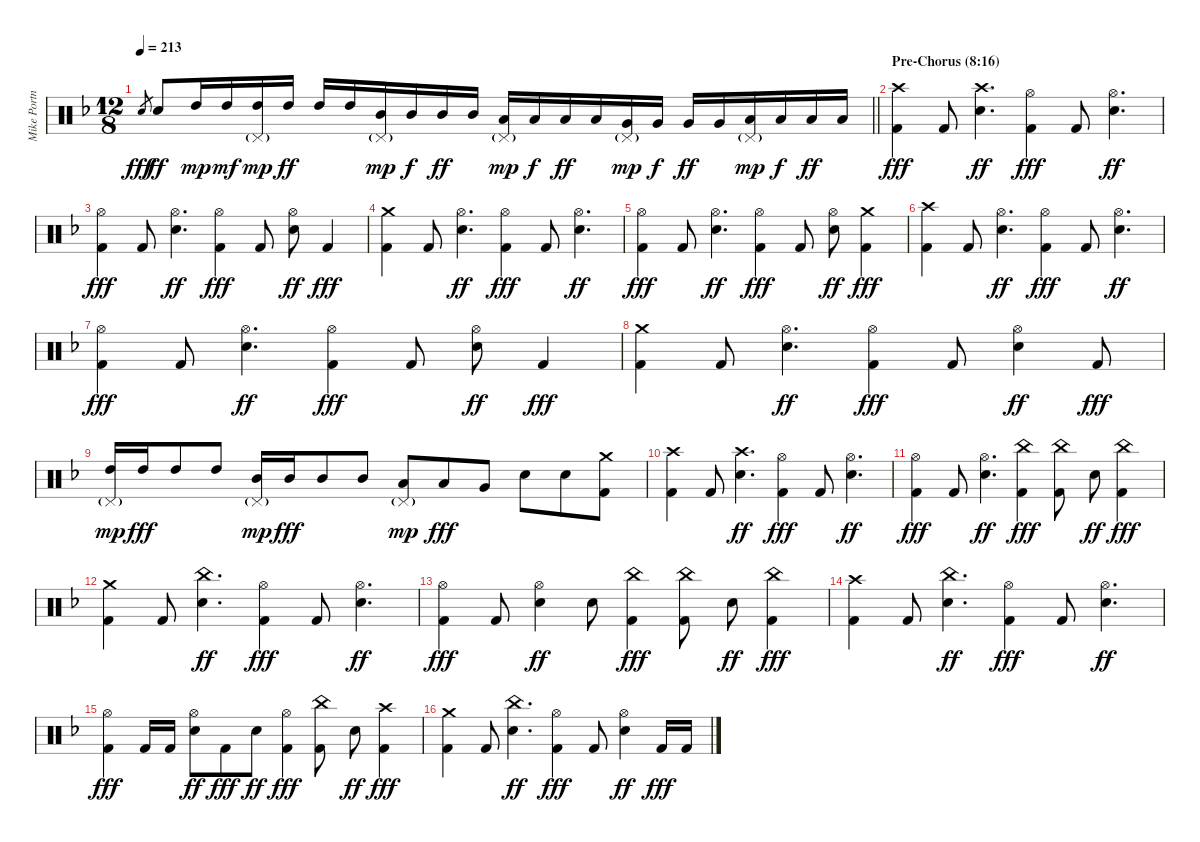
\track ("Mike Portnoy Drums" "Mike Portn") {instrument percussion}
\staff {score}
\articulation defaults
\ts (12 8)
\tempo 213
\clef neutral
\barLineRight lightlight
\ks dminor "Electric Snare (hit)".8{gr dy fff} "Electric Snare (hit)".8{dy ff} "High Tom (hit)".16{dy mp} "High Tom (hit)".16{dy mf}
("High Tom (hit)" "Pedal Hi-Hat (hit)"{g}).16{dy mp} "High Tom (hit)".16{dy ff} "High Tom (hit)".16 "High Tom (hit)".16 ("Mid Tom (hit)" "Pedal Hi-Hat (hit)"{g}).16{dy mp} "Mid Tom (hit)".16{dy f} "Mid Tom (hit)".16{dy ff} "Mid Tom (hit)".16 ("Low Tom (hit)" "Pedal Hi-Hat (hit)"{g}).16{dy mp} "Low Tom (hit)".16{dy f} "Low Tom (hit)".16{dy ff} "Low Tom (hit)".16 ("Very Low Tom (hit)" "Pedal Hi-Hat (hit)"{g}).16{dy mp} "Very Low Tom (hit)".16{dy f} "Very Low Tom (hit)".16{dy ff} "Very Low Tom (hit)".16 ("Low Floor Tom (hit)" "Pedal Hi-Hat (hit)"{g}).16{dy mp} "Low Floor Tom (hit)".16{dy f} "Low Floor Tom (hit)".16{dy ff} "Low Floor Tom (hit)".16 |
\section ("" "Pre-Chorus (8:16)")
("Crash high (hit)" "Kick (hit) 2").4{dy fff} "Kick (hit) 2".8 ("Crash high (hit)" "Electric Snare (hit)").4{d dy ff} ("Hi-Hat (open)" "Kick (hit) 2").4{dy fff} "Kick (hit) 2".8 ("Hi-Hat (open)" "Electric Snare (hit)").4{d dy ff} |
("Hi-Hat (open)" "Kick (hit) 2").4{dy fff} "Kick (hit) 2".8 ("Hi-Hat (open)" "Electric Snare (hit)").4{d dy ff} ("Hi-Hat (open)" "Kick (hit) 2").4{dy fff} "Kick (hit) 2".8 ("Hi-Hat (open)" "Electric Snare (hit)").8{dy ff} "Kick (hit) 2".4{dy fff} |
("Crash medium (hit)" "Kick (hit) 2").4 "Kick (hit) 2".8 ("Hi-Hat (open)" "Electric Snare (hit)").4{d dy ff} ("Hi-Hat (open)" "Kick (hit) 2").4{dy fff} "Kick (hit) 2".8 ("Hi-Hat (open)" "Electric Snare (hit)").4{d dy ff} |
("Hi-Hat (open)" "Kick (hit) 2").4{dy fff} "Kick (hit) 2".8 ("Hi-Hat (open)" "Electric Snare (hit)").4{d dy ff} ("Hi-Hat (open)" "Kick (hit) 2").4{dy fff} "Kick (hit) 2".8 ("Hi-Hat (open)" "Electric Snare (hit)").8{dy ff} ("Crash medium (hit)" "Kick (hit) 2").4{dy fff} |
("Crash high (hit)" "Kick (hit) 2").4 "Kick (hit) 2".8 ("Hi-Hat (open)" "Electric Snare (hit)").4{d dy ff} ("Hi-Hat (open)" "Kick (hit) 2").4{dy fff} "Kick (hit) 2".8 ("Hi-Hat (open)" "Electric Snare (hit)").4{d dy ff} |
("Hi-Hat (open)" "Kick (hit) 2").4{dy fff} "Kick (hit) 2".8 ("Hi-Hat (open)" "Electric Snare (hit)").4{d dy ff} ("Hi-Hat (open)" "Kick (hit) 2").4{dy fff} "Kick (hit) 2".8 ("Hi-Hat (open)" "Electric Snare (hit)").8{dy ff} "Kick (hit) 2".4{dy fff} |
("Crash medium (hit)" "Kick (hit) 2").4 "Kick (hit) 2".8 ("Hi-Hat (open)" "Electric Snare (hit)").4{d dy ff} ("Hi-Hat (open)" "Kick (hit) 2").4{dy fff} "Kick (hit) 2".8 ("Hi-Hat (open)" "Electric Snare (hit)").4{dy ff} "Kick (hit) 2".8{dy fff} |
("High Tom (hit)" "Pedal Hi-Hat (hit)"{g}).16{dy mp} "High Tom (hit)".16{dy fff} "High Tom (hit)".8 "High Tom (hit)".8 ("Mid Tom (hit)" "Pedal Hi-Hat (hit)"{g}).16{dy mp} "Mid Tom (hit)".16{dy fff} "Mid Tom (hit)".8 "Mid Tom (hit)".8 ("Low Tom (hit)" "Pedal Hi-Hat (hit)"{g}).8{dy mp} "Low Tom (hit)".8{dy fff} "Very Low Tom (hit)".8 "Electric Snare (hit)".8 "Electric Snare (hit)".8 ("Crash medium (hit)" "Kick (hit) 2").8 |
("Crash high (hit)" "Kick (hit) 2").4 "Kick (hit) 2".8 ("Crash high (hit)" "Electric Snare (hit)").4{d dy ff} ("Hi-Hat (open)" "Kick (hit) 2").4{dy fff} "Kick (hit) 2".8 ("Hi-Hat (open)" "Electric Snare (hit)").4{d dy ff} |
("Hi-Hat (open)" "Kick (hit) 2").4{dy fff} "Kick (hit) 2".8 ("Hi-Hat (open)" "Electric Snare (hit)").4{d dy ff} ("China (hit)" "Kick (hit) 2").4{dy fff} ("China (hit)" "Kick (hit) 2").8 "Electric Snare (hit)".8{dy ff} ("China (hit)" "Kick (hit) 2").4{dy fff} |
("Crash medium (hit)" "Kick (hit) 2").4 "Kick (hit) 2".8 ("China (hit)" "Electric Snare (hit)").4{d dy ff} ("Hi-Hat (open)" "Kick (hit) 2").4{dy fff} "Kick (hit) 2".8 ("Hi-Hat (open)" "Electric Snare (hit)").4{d dy ff} |
("Hi-Hat (open)" "Kick (hit) 2").4{dy fff} "Kick (hit) 2".8 ("Hi-Hat (open)" "Electric Snare (hit)").4{dy ff} "Electric Snare (hit)".8 ("China (hit)" "Kick (hit) 2").4{dy fff} ("China (hit)" "Kick (hit) 2").8 "Electric Snare (hit)".8{dy ff} ("China (hit)" "Kick (hit) 2").4{dy fff} |
("Crash high (hit)" "Kick (hit) 2").4 "Kick (hit) 2".8 ("China (hit)" "Electric Snare (hit)").4{d dy ff} ("Hi-Hat (open)" "Kick (hit) 2").4{dy fff} "Kick (hit) 2".8 ("Hi-Hat (open)" "Electric Snare (hit)").4{d dy ff} |
("Hi-Hat (open)" "Kick (hit) 2").4{dy fff} "Kick (hit) 2".16 "Kick (hit) 2".16 ("Hi-Hat (open)" "Electric Snare (hit)").8{dy ff} "Kick (hit) 2".8{dy fff} "Electric Snare (hit)".8{dy ff} ("Hi-Hat (open)" "Kick (hit) 2").4{dy fff} ("China (hit)" "Kick (hit) 2").8 "Electric Snare (hit)".8{dy ff} ("Crash high (hit)" "Kick (hit) 2").4{dy fff} |
("Crash medium (hit)" "Kick (hit) 2").4 "Kick (hit) 2".8 ("China (hit)" "Electric Snare (hit)").4{d dy ff} ("Hi-Hat (open)" "Kick (hit) 2").4{dy fff} "Kick (hit) 2".8 ("Hi-Hat (open)" "Electric Snare (hit)").4{dy ff} "Kick (hit) 2".16{dy fff} "Kick (hit) 2".16
